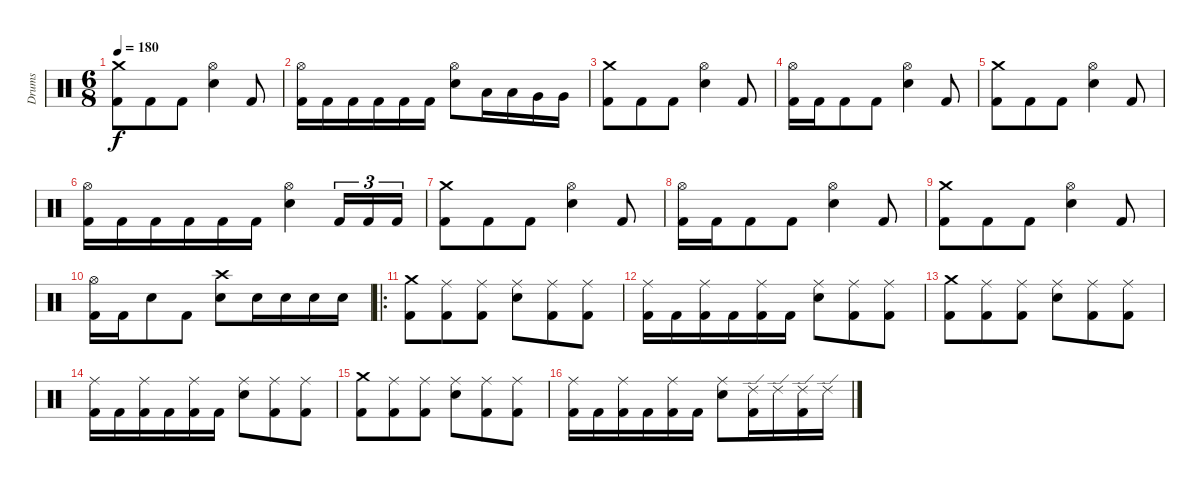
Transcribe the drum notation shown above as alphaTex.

\track ("Drums" "Drums") {instrument percussion}
\staff {score}
\articulation defaults
\ts (6 8)
\tempo 180
\clef neutral
\ks c
("Kick (hit) 2" "Crash medium (hit)").8{dy f} "Kick (hit) 2".8 "Kick (hit) 2".8 ("Electric Snare (hit)" "Hi-Hat (open)").4 "Kick (hit) 2".8 |
("Kick (hit) 2" "Hi-Hat (open)").16 "Kick (hit) 2".16 "Kick (hit) 2".16 "Kick (hit) 2".16 "Kick (hit) 2".16 "Kick (hit) 2".16 ("Electric Snare (hit)" "Hi-Hat (open)").8 "Low Tom (hit)".16 "Low Tom (hit)".16 "Very Low Tom (hit)".16 "Very Low Tom (hit)".16 |
("Kick (hit) 2" "Crash medium (hit)").8 "Kick (hit) 2".8 "Kick (hit) 2".8 ("Electric Snare (hit)" "Hi-Hat (open)").4 "Kick (hit) 2".8 |
("Kick (hit) 2" "Hi-Hat (open)").16 "Kick (hit) 2".16 "Kick (hit) 2".8 "Kick (hit) 2".8 ("Electric Snare (hit)" "Hi-Hat (open)").4 "Kick (hit) 2".8 |
("Kick (hit) 2" "Crash medium (hit)").8 "Kick (hit) 2".8 "Kick (hit) 2".8 ("Electric Snare (hit)" "Hi-Hat (open)").4 "Kick (hit) 2".8 |
("Kick (hit) 2" "Hi-Hat (open)").16 "Kick (hit) 2".16 "Kick (hit) 2".16 "Kick (hit) 2".16 "Kick (hit) 2".16 "Kick (hit) 2".16 ("Electric Snare (hit)" "Hi-Hat (open)").4 "Kick (hit) 2".16{tu (3 2)} "Kick (hit) 2".16{tu (3 2)} "Kick (hit) 2".16{tu (3 2)} |
("Kick (hit) 2" "Crash medium (hit)").8 "Kick (hit) 2".8 "Kick (hit) 2".8 ("Electric Snare (hit)" "Hi-Hat (open)").4 "Kick (hit) 2".8 |
("Kick (hit) 2" "Hi-Hat (open)").16 "Kick (hit) 2".16 "Kick (hit) 2".8 "Kick (hit) 2".8 ("Electric Snare (hit)" "Hi-Hat (open)").4 "Kick (hit) 2".8 |
("Kick (hit) 2" "Crash medium (hit)").8 "Kick (hit) 2".8 "Kick (hit) 2".8 ("Electric Snare (hit)" "Hi-Hat (open)").4 "Kick (hit) 2".8 |
("Kick (hit) 2" "Hi-Hat (open)").16 "Kick (hit) 2".16 "Electric Snare (hit)".8 "Kick (hit) 2".8 ("Electric Snare (hit)" "Crash high (hit)").8 "Electric Snare (hit)".16 "Electric Snare (hit)".16 "Electric Snare (hit)".16 "Electric Snare (hit)".16 |
\ro
("Kick (hit) 2" "Crash medium (hit)").8 ("Kick (hit) 2" "Ride (middle)").8 ("Kick (hit) 2" "Ride (middle)").8 ("Electric Snare (hit)" "Ride (middle)").8 ("Kick (hit) 2" "Ride (middle)").8 ("Kick (hit) 2" "Ride (middle)").8 |
("Kick (hit) 2" "Ride (middle)").16 "Kick (hit) 2".16 ("Kick (hit) 2" "Ride (middle)").16 "Kick (hit) 2".16 ("Kick (hit) 2" "Ride (middle)").16 "Kick (hit) 2".16 ("Electric Snare (hit)" "Ride (middle)").8 ("Kick (hit) 2" "Ride (middle)").8 ("Kick (hit) 2" "Ride (middle)").8 |
("Kick (hit) 2" "Crash medium (hit)").8 ("Kick (hit) 2" "Ride (middle)").8 ("Kick (hit) 2" "Ride (middle)").8 ("Electric Snare (hit)" "Ride (middle)").8 ("Kick (hit) 2" "Ride (middle)").8 ("Kick (hit) 2" "Ride (middle)").8 |
("Kick (hit) 2" "Ride (middle)").16 "Kick (hit) 2".16 ("Kick (hit) 2" "Ride (middle)").16 "Kick (hit) 2".16 ("Kick (hit) 2" "Ride (middle)").16 "Kick (hit) 2".16 ("Electric Snare (hit)" "Ride (middle)").8 ("Kick (hit) 2" "Ride (middle)").8 ("Kick (hit) 2" "Ride (middle)").8 |
("Kick (hit) 2" "Crash medium (hit)").8 ("Kick (hit) 2" "Ride (middle)").8 ("Kick (hit) 2" "Ride (middle)").8 ("Electric Snare (hit)" "Ride (middle)").8 ("Kick (hit) 2" "Ride (middle)").8 ("Kick (hit) 2" "Ride (middle)").8 |
("Kick (hit) 2" "Ride (middle)").16 "Kick (hit) 2".16 ("Kick (hit) 2" "Ride (middle)").16 "Kick (hit) 2".16 ("Kick (hit) 2" "Ride (middle)").16 "Kick (hit) 2".16 ("Electric Snare (hit)" "Ride (middle)").8 ("Kick (hit) 2" "Ride (edge) 2").16 "Ride (edge) 2".16 ("Kick (hit) 2" "Ride (edge) 2").16 "Ride (edge) 2".16
